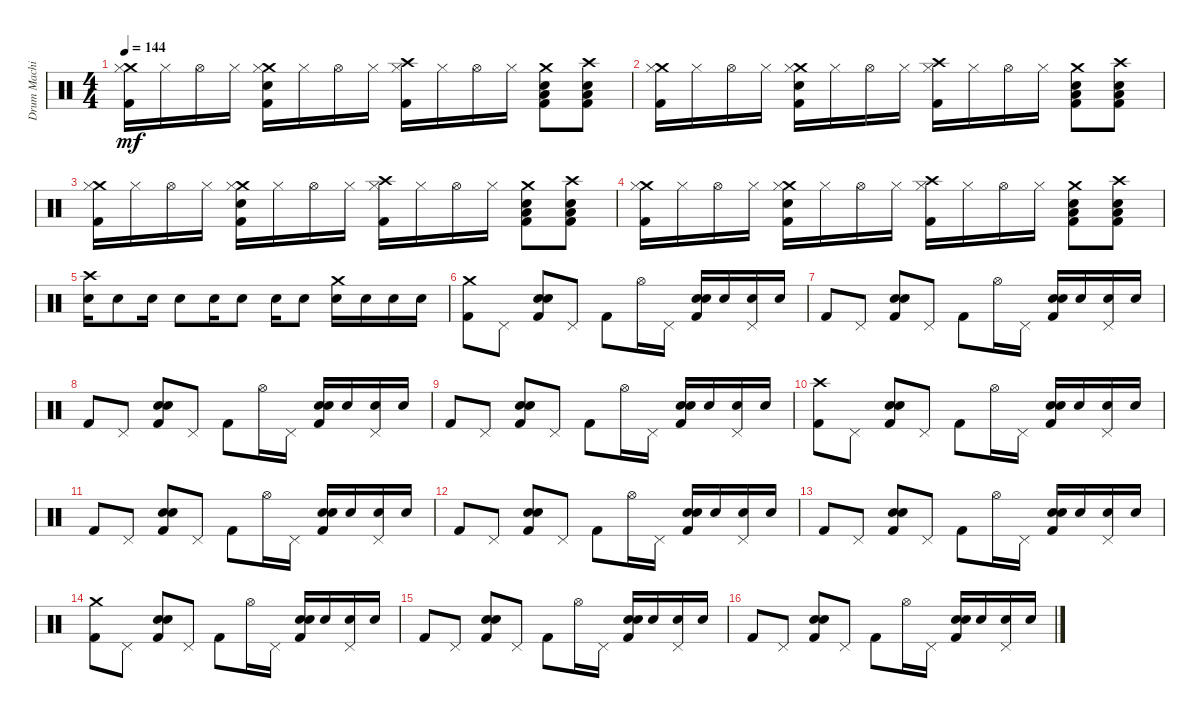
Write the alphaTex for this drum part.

\track ("Drum Machine" "Drum Machi") {instrument percussion}
\staff {score}
\articulation defaults
\ts (4 4)
\tempo 144
\clef neutral
\ks c
("Crash medium (hit)" "Hi-Hat (closed)" "Kick (hit) 2").16{dy mf} "Hi-Hat (closed)".16 "Hi-Hat (open)".16 "Hi-Hat (closed)".16 ("Crash medium (hit)" "Hi-Hat (closed)" "Hand Clap (hit)" "Kick (hit) 2").16 "Hi-Hat (closed)".16 "Hi-Hat (open)".16 "Hi-Hat (closed)".16 ("Crash high (hit)" "Hi-Hat (closed)" "Kick (hit) 2").16 "Hi-Hat (closed)".16 "Hi-Hat (open)".16 "Hi-Hat (closed)".16 ("Crash medium (hit)" "Hand Clap (hit)" "Low Floor Tom (hit)" "Kick (hit) 2").8 ("Crash high (hit)" "Hand Clap (hit)" "Low Floor Tom (hit)" "Kick (hit) 2").8 |
("Crash medium (hit)" "Hi-Hat (closed)" "Kick (hit) 2").16 "Hi-Hat (closed)".16 "Hi-Hat (open)".16 "Hi-Hat (closed)".16 ("Crash medium (hit)" "Hi-Hat (closed)" "Hand Clap (hit)" "Kick (hit) 2").16 "Hi-Hat (closed)".16 "Hi-Hat (open)".16 "Hi-Hat (closed)".16 ("Crash high (hit)" "Hi-Hat (closed)" "Kick (hit) 2").16 "Hi-Hat (closed)".16 "Hi-Hat (open)".16 "Hi-Hat (closed)".16 ("Crash medium (hit)" "Hand Clap (hit)" "Low Floor Tom (hit)" "Kick (hit) 2").8 ("Crash high (hit)" "Hand Clap (hit)" "Low Floor Tom (hit)" "Kick (hit) 2").8 |
("Crash medium (hit)" "Hi-Hat (closed)" "Kick (hit) 2").16 "Hi-Hat (closed)".16 "Hi-Hat (open)".16 "Hi-Hat (closed)".16 ("Crash medium (hit)" "Hi-Hat (closed)" "Hand Clap (hit)" "Kick (hit) 2").16 "Hi-Hat (closed)".16 "Hi-Hat (open)".16 "Hi-Hat (closed)".16 ("Crash high (hit)" "Hi-Hat (closed)" "Kick (hit) 2").16 "Hi-Hat (closed)".16 "Hi-Hat (open)".16 "Hi-Hat (closed)".16 ("Crash medium (hit)" "Hand Clap (hit)" "Low Floor Tom (hit)" "Kick (hit) 2").8 ("Crash high (hit)" "Hand Clap (hit)" "Low Floor Tom (hit)" "Kick (hit) 2").8 |
("Crash medium (hit)" "Hi-Hat (closed)" "Kick (hit) 2").16 "Hi-Hat (closed)".16 "Hi-Hat (open)".16 "Hi-Hat (closed)".16 ("Crash medium (hit)" "Hi-Hat (closed)" "Hand Clap (hit)" "Kick (hit) 2").16 "Hi-Hat (closed)".16 "Hi-Hat (open)".16 "Hi-Hat (closed)".16 ("Crash high (hit)" "Hi-Hat (closed)" "Kick (hit) 2").16 "Hi-Hat (closed)".16 "Hi-Hat (open)".16 "Hi-Hat (closed)".16 ("Crash medium (hit)" "Hand Clap (hit)" "Low Floor Tom (hit)" "Kick (hit) 2").8 ("Crash high (hit)" "Hand Clap (hit)" "Low Floor Tom (hit)" "Kick (hit) 2").8 |
("Crash high (hit)" "Electric Snare (hit)").16 "Electric Snare (hit)".8 "Electric Snare (hit)".16 "Electric Snare (hit)".8 "Electric Snare (hit)".16 "Electric Snare (hit)".8 "Electric Snare (hit)".16 "Electric Snare (hit)".8 ("Crash medium (hit)" "Electric Snare (hit)").16 "Electric Snare (hit)".16 "Electric Snare (hit)".16 "Electric Snare (hit)".16 |
("Crash medium (hit)" "Kick (hit) 2").8 "Pedal Hi-Hat (hit)".8 ("Hand Clap (hit)" "Electric Snare (hit)" "Kick (hit) 2").8 "Pedal Hi-Hat (hit)".8 "Kick (hit) 2".8 "Hi-Hat (open)".16 "Pedal Hi-Hat (hit)".16 ("Hand Clap (hit)" "Electric Snare (hit)" "Kick (hit) 2").16 "Hand Clap (hit)".16 ("Pedal Hi-Hat (hit)" "Hand Clap (hit)").16 "Hand Clap (hit)".16 |
"Kick (hit) 2".8 "Pedal Hi-Hat (hit)".8 ("Hand Clap (hit)" "Electric Snare (hit)" "Kick (hit) 2").8 "Pedal Hi-Hat (hit)".8 "Kick (hit) 2".8 "Hi-Hat (open)".16 "Pedal Hi-Hat (hit)".16 ("Hand Clap (hit)" "Electric Snare (hit)" "Kick (hit) 2").16 "Hand Clap (hit)".16 ("Pedal Hi-Hat (hit)" "Hand Clap (hit)").16 "Hand Clap (hit)".16 |
"Kick (hit) 2".8 "Pedal Hi-Hat (hit)".8 ("Hand Clap (hit)" "Electric Snare (hit)" "Kick (hit) 2").8 "Pedal Hi-Hat (hit)".8 "Kick (hit) 2".8 "Hi-Hat (open)".16 "Pedal Hi-Hat (hit)".16 ("Hand Clap (hit)" "Electric Snare (hit)" "Kick (hit) 2").16 "Hand Clap (hit)".16 ("Pedal Hi-Hat (hit)" "Hand Clap (hit)").16 "Hand Clap (hit)".16 |
"Kick (hit) 2".8 "Pedal Hi-Hat (hit)".8 ("Hand Clap (hit)" "Electric Snare (hit)" "Kick (hit) 2").8 "Pedal Hi-Hat (hit)".8 "Kick (hit) 2".8 "Hi-Hat (open)".16 "Pedal Hi-Hat (hit)".16 ("Hand Clap (hit)" "Electric Snare (hit)" "Kick (hit) 2").16 "Hand Clap (hit)".16 ("Pedal Hi-Hat (hit)" "Hand Clap (hit)").16 "Hand Clap (hit)".16 |
("Crash high (hit)" "Kick (hit) 2").8 "Pedal Hi-Hat (hit)".8 ("Hand Clap (hit)" "Electric Snare (hit)" "Kick (hit) 2").8 "Pedal Hi-Hat (hit)".8 "Kick (hit) 2".8 "Hi-Hat (open)".16 "Pedal Hi-Hat (hit)".16 ("Hand Clap (hit)" "Electric Snare (hit)" "Kick (hit) 2").16 "Hand Clap (hit)".16 ("Pedal Hi-Hat (hit)" "Hand Clap (hit)").16 "Hand Clap (hit)".16 |
"Kick (hit) 2".8 "Pedal Hi-Hat (hit)".8 ("Hand Clap (hit)" "Electric Snare (hit)" "Kick (hit) 2").8 "Pedal Hi-Hat (hit)".8 "Kick (hit) 2".8 "Hi-Hat (open)".16 "Pedal Hi-Hat (hit)".16 ("Hand Clap (hit)" "Electric Snare (hit)" "Kick (hit) 2").16 "Hand Clap (hit)".16 ("Pedal Hi-Hat (hit)" "Hand Clap (hit)").16 "Hand Clap (hit)".16 |
"Kick (hit) 2".8 "Pedal Hi-Hat (hit)".8 ("Hand Clap (hit)" "Electric Snare (hit)" "Kick (hit) 2").8 "Pedal Hi-Hat (hit)".8 "Kick (hit) 2".8 "Hi-Hat (open)".16 "Pedal Hi-Hat (hit)".16 ("Hand Clap (hit)" "Electric Snare (hit)" "Kick (hit) 2").16 "Hand Clap (hit)".16 ("Pedal Hi-Hat (hit)" "Hand Clap (hit)").16 "Hand Clap (hit)".16 |
"Kick (hit) 2".8 "Pedal Hi-Hat (hit)".8 ("Hand Clap (hit)" "Electric Snare (hit)" "Kick (hit) 2").8 "Pedal Hi-Hat (hit)".8 "Kick (hit) 2".8 "Hi-Hat (open)".16 "Pedal Hi-Hat (hit)".16 ("Hand Clap (hit)" "Electric Snare (hit)" "Kick (hit) 2").16 "Hand Clap (hit)".16 ("Pedal Hi-Hat (hit)" "Hand Clap (hit)").16 "Hand Clap (hit)".16 |
("Crash medium (hit)" "Kick (hit) 2").8 "Pedal Hi-Hat (hit)".8 ("Hand Clap (hit)" "Electric Snare (hit)" "Kick (hit) 2").8 "Pedal Hi-Hat (hit)".8 "Kick (hit) 2".8 "Hi-Hat (open)".16 "Pedal Hi-Hat (hit)".16 ("Hand Clap (hit)" "Electric Snare (hit)" "Kick (hit) 2").16 "Hand Clap (hit)".16 ("Pedal Hi-Hat (hit)" "Hand Clap (hit)").16 "Hand Clap (hit)".16 |
"Kick (hit) 2".8 "Pedal Hi-Hat (hit)".8 ("Hand Clap (hit)" "Electric Snare (hit)" "Kick (hit) 2").8 "Pedal Hi-Hat (hit)".8 "Kick (hit) 2".8 "Hi-Hat (open)".16 "Pedal Hi-Hat (hit)".16 ("Hand Clap (hit)" "Electric Snare (hit)" "Kick (hit) 2").16 "Hand Clap (hit)".16 ("Pedal Hi-Hat (hit)" "Hand Clap (hit)").16 "Hand Clap (hit)".16 |
"Kick (hit) 2".8 "Pedal Hi-Hat (hit)".8 ("Hand Clap (hit)" "Electric Snare (hit)" "Kick (hit) 2").8 "Pedal Hi-Hat (hit)".8 "Kick (hit) 2".8 "Hi-Hat (open)".16 "Pedal Hi-Hat (hit)".16 ("Hand Clap (hit)" "Electric Snare (hit)" "Kick (hit) 2").16 "Hand Clap (hit)".16 ("Pedal Hi-Hat (hit)" "Hand Clap (hit)").16 "Hand Clap (hit)".16
